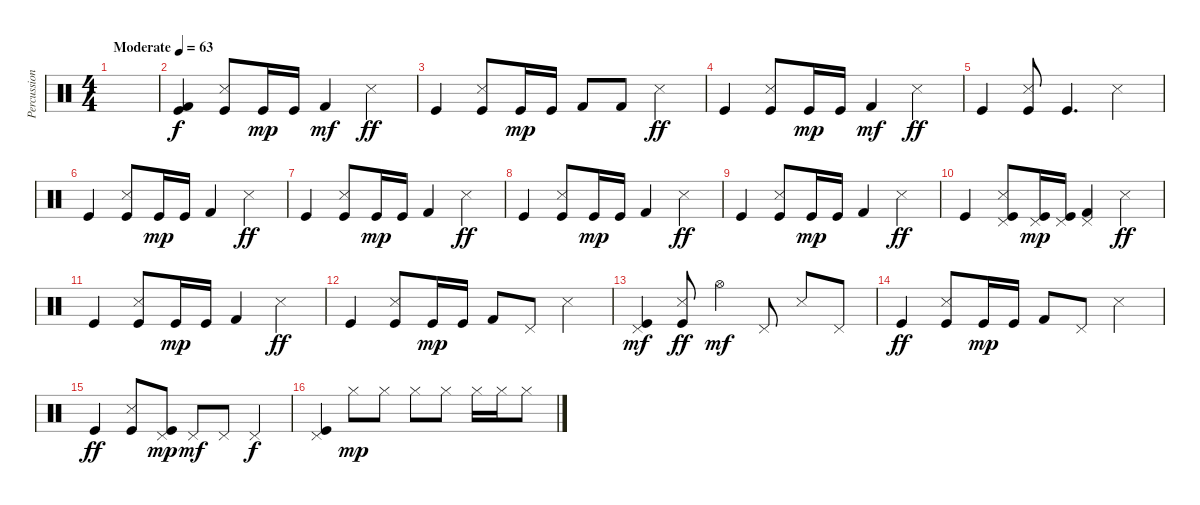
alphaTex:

\track ("Percussion" "Percussion") {instrument percussion}
\staff {score}
\articulation defaults
\ts (4 4)
\tempo (63 "Moderate")
\clef neutral
\ks c
|
("Kick (hit)" "Kick (hit) 2").4 ("Snare (side stick) 3" "Kick (hit)").8 "Kick (hit)".16{dy mp} "Kick (hit)".16 "Kick (hit) 2".4{dy mf} "Snare (side stick) 3".4{dy ff} |
"Kick (hit)".4 ("Snare (side stick) 3" "Kick (hit)").8 "Kick (hit)".16{dy mp} "Kick (hit)".16 "Kick (hit) 2".8 "Kick (hit) 2".8 "Snare (side stick) 3".4{dy ff} |
"Kick (hit)".4 ("Snare (side stick) 3" "Kick (hit)").8 "Kick (hit)".16{dy mp} "Kick (hit)".16 "Kick (hit) 2".4{dy mf} "Snare (side stick) 3".4{dy ff} |
"Kick (hit)".4 ("Snare (side stick) 3" "Kick (hit)").8 "Kick (hit)".4{d} "Snare (side stick) 3".4 |
"Kick (hit)".4 ("Snare (side stick) 3" "Kick (hit)").8 "Kick (hit)".16{dy mp} "Kick (hit)".16 "Kick (hit) 2".4 "Snare (side stick) 3".4{dy ff} |
"Kick (hit)".4 ("Snare (side stick) 3" "Kick (hit)").8 "Kick (hit)".16{dy mp} "Kick (hit)".16 "Kick (hit) 2".4 "Snare (side stick) 3".4{dy ff} |
"Kick (hit)".4 ("Snare (side stick) 3" "Kick (hit)").8 "Kick (hit)".16{dy mp} "Kick (hit)".16 "Kick (hit) 2".4 "Snare (side stick) 3".4{dy ff} |
"Kick (hit)".4 ("Snare (side stick) 3" "Kick (hit)").8 "Kick (hit)".16{dy mp} "Kick (hit)".16 "Kick (hit) 2".4 "Snare (side stick) 3".4{dy ff} |
"Kick (hit)".4 ("Pedal Hi-Hat (hit)" "Snare (side stick) 3" "Kick (hit)").8 ("Pedal Hi-Hat (hit)" "Kick (hit)").16{dy mp} ("Pedal Hi-Hat (hit)" "Kick (hit)").16 ("Pedal Hi-Hat (hit)" "Kick (hit) 2").4 "Snare (side stick) 3".4{dy ff} |
"Kick (hit)".4 ("Snare (side stick) 3" "Kick (hit)").8 "Kick (hit)".16{dy mp} "Kick (hit)".16 "Kick (hit) 2".4 "Snare (side stick) 3".4{dy ff} |
"Kick (hit)".4 ("Snare (side stick) 3" "Kick (hit)").8 "Kick (hit)".16{dy mp} "Kick (hit)".16 "Kick (hit) 2".8 "Pedal Hi-Hat (hit)".8 "Snare (side stick) 3".4 |
("Kick (hit)" "Pedal Hi-Hat (hit)").4{dy mf} ("Snare (side stick) 3" "Kick (hit)").8{dy ff} "Hi-Hat (open)".4{dy mf} "Pedal Hi-Hat (hit)".8 "Snare (side stick) 3".8 "Pedal Hi-Hat (hit)".8 |
"Kick (hit)".4{dy ff} ("Snare (side stick) 3" "Kick (hit)").8 "Kick (hit)".16{dy mp} "Kick (hit)".16 "Kick (hit) 2".8 "Pedal Hi-Hat (hit)".8 "Snare (side stick) 3".4 |
"Kick (hit)".4{dy ff} ("Snare (side stick) 3" "Kick (hit)").8 ("Pedal Hi-Hat (hit)" "Kick (hit)").8{dy mp} "Pedal Hi-Hat (hit)".8{dy mf} "Pedal Hi-Hat (hit)".8 "Pedal Hi-Hat (hit)".4{dy f} |
("Pedal Hi-Hat (hit)" "Kick (hit)").4 "Hi-Hat (closed)".8{dy mp} "Hi-Hat (closed)".8 "Hi-Hat (closed)".8 "Hi-Hat (closed)".8 "Hi-Hat (closed)".16 "Hi-Hat (closed)".16 "Hi-Hat (closed)".8
